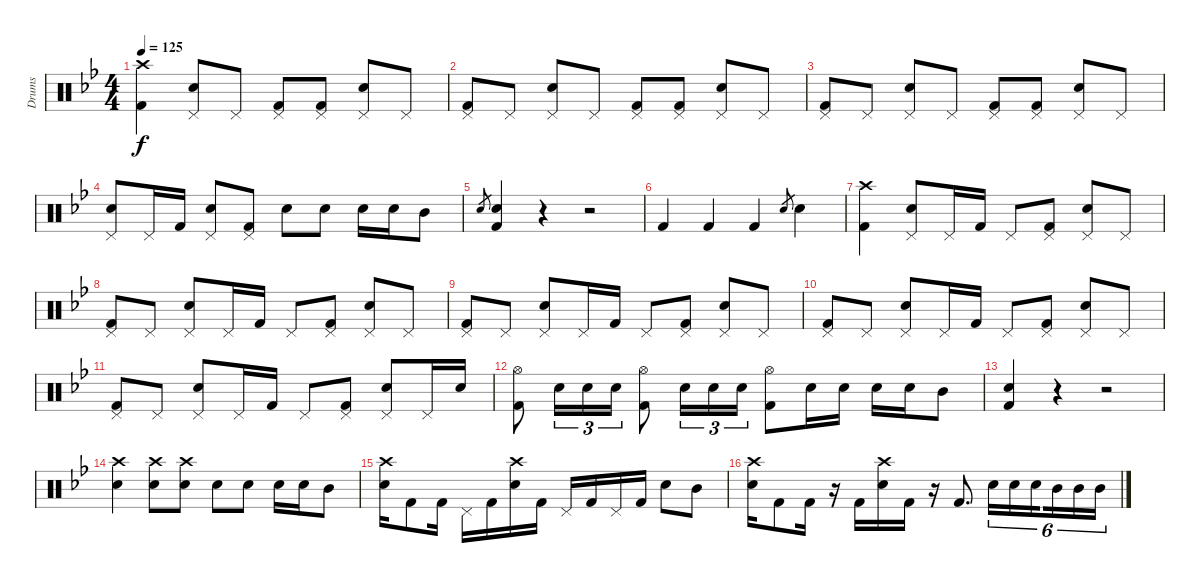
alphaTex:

\track ("Drums" "Drums") {instrument percussion}
\staff {score}
\articulation defaults
\ts (4 4)
\tempo 125
\clef neutral
\ks bb
("Crash high (hit)" "Kick (hit) 2").4{dy f} ("Pedal Hi-Hat (hit)" "Electric Snare (hit)").8 "Pedal Hi-Hat (hit)".8 ("Pedal Hi-Hat (hit)" "Kick (hit) 2").8 ("Pedal Hi-Hat (hit)" "Kick (hit) 2").8 ("Pedal Hi-Hat (hit)" "Electric Snare (hit)").8 "Pedal Hi-Hat (hit)".8 |
("Pedal Hi-Hat (hit)" "Kick (hit) 2").8 "Pedal Hi-Hat (hit)".8 ("Pedal Hi-Hat (hit)" "Electric Snare (hit)").8 "Pedal Hi-Hat (hit)".8 ("Pedal Hi-Hat (hit)" "Kick (hit) 2").8 ("Pedal Hi-Hat (hit)" "Kick (hit) 2").8 ("Pedal Hi-Hat (hit)" "Electric Snare (hit)").8 "Pedal Hi-Hat (hit)".8 |
("Pedal Hi-Hat (hit)" "Kick (hit) 2").8 "Pedal Hi-Hat (hit)".8 ("Pedal Hi-Hat (hit)" "Electric Snare (hit)").8 "Pedal Hi-Hat (hit)".8 ("Pedal Hi-Hat (hit)" "Kick (hit) 2").8 ("Pedal Hi-Hat (hit)" "Kick (hit) 2").8 ("Pedal Hi-Hat (hit)" "Electric Snare (hit)").8 "Pedal Hi-Hat (hit)".8 |
("Pedal Hi-Hat (hit)" "Electric Snare (hit)").8 "Pedal Hi-Hat (hit)".16 "Kick (hit) 2".16 ("Pedal Hi-Hat (hit)" "Electric Snare (hit)").8 ("Pedal Hi-Hat (hit)" "Kick (hit) 2").8 "Electric Snare (hit)".8 "Electric Snare (hit)".8 "Electric Snare (hit)".16 "Electric Snare (hit)".16 "Mid Tom (hit)".8 |
"Electric Snare (hit)".8{gr} ("Electric Snare (hit)" "Kick (hit) 2").4 r.4 r.2 |
"Kick (hit) 2".4 "Kick (hit) 2".4 "Kick (hit) 2".4 "Electric Snare (hit)".8{gr} "Electric Snare (hit)".4 |
("Crash high (hit)" "Kick (hit) 2").4 ("Pedal Hi-Hat (hit)" "Electric Snare (hit)").8 "Pedal Hi-Hat (hit)".16 "Kick (hit) 2".16 "Pedal Hi-Hat (hit)".8 ("Pedal Hi-Hat (hit)" "Kick (hit) 2").8 ("Pedal Hi-Hat (hit)" "Electric Snare (hit)").8 "Pedal Hi-Hat (hit)".8 |
("Pedal Hi-Hat (hit)" "Kick (hit) 2").8 "Pedal Hi-Hat (hit)".8 ("Pedal Hi-Hat (hit)" "Electric Snare (hit)").8 "Pedal Hi-Hat (hit)".16 "Kick (hit) 2".16 "Pedal Hi-Hat (hit)".8 ("Pedal Hi-Hat (hit)" "Kick (hit) 2").8 ("Pedal Hi-Hat (hit)" "Electric Snare (hit)").8 "Pedal Hi-Hat (hit)".8 |
("Pedal Hi-Hat (hit)" "Kick (hit) 2").8 "Pedal Hi-Hat (hit)".8 ("Pedal Hi-Hat (hit)" "Electric Snare (hit)").8 "Pedal Hi-Hat (hit)".16 "Kick (hit) 2".16 "Pedal Hi-Hat (hit)".8 ("Pedal Hi-Hat (hit)" "Kick (hit) 2").8 ("Pedal Hi-Hat (hit)" "Electric Snare (hit)").8 "Pedal Hi-Hat (hit)".8 |
("Pedal Hi-Hat (hit)" "Kick (hit) 2").8 "Pedal Hi-Hat (hit)".8 ("Pedal Hi-Hat (hit)" "Electric Snare (hit)").8 "Pedal Hi-Hat (hit)".16 "Kick (hit) 2".16 "Pedal Hi-Hat (hit)".8 ("Pedal Hi-Hat (hit)" "Kick (hit) 2").8 ("Pedal Hi-Hat (hit)" "Electric Snare (hit)").8 "Pedal Hi-Hat (hit)".8 |
("Pedal Hi-Hat (hit)" "Kick (hit) 2").8 "Pedal Hi-Hat (hit)".8 ("Pedal Hi-Hat (hit)" "Electric Snare (hit)").8 "Pedal Hi-Hat (hit)".16 "Kick (hit) 2".16 "Pedal Hi-Hat (hit)".8 ("Pedal Hi-Hat (hit)" "Kick (hit) 2").8 ("Pedal Hi-Hat (hit)" "Electric Snare (hit)").8 "Pedal Hi-Hat (hit)".16 "Electric Snare (hit)".16 |
("Hi-Hat (open)" "Kick (hit) 2").8 "Electric Snare (hit)".16{tu (3 2)} "Electric Snare (hit)".16{tu (3 2)} "Electric Snare (hit)".16{tu (3 2)} ("Hi-Hat (open)" "Kick (hit) 2").8 "Electric Snare (hit)".16{tu (3 2)} "Electric Snare (hit)".16{tu (3 2)} "Electric Snare (hit)".16{tu (3 2)} ("Hi-Hat (open)" "Kick (hit) 2").8 "Electric Snare (hit)".16 "Electric Snare (hit)".16 "Electric Snare (hit)".16 "Electric Snare (hit)".16 "Mid Tom (hit)".8 |
("Electric Snare (hit)" "Kick (hit) 2").4 r.4 r.2 |
("Crash high (hit)" "Electric Snare (hit)").4 ("Crash high (hit)" "Electric Snare (hit)").8 ("Crash high (hit)" "Electric Snare (hit)").8 "Electric Snare (hit)".8 "Electric Snare (hit)".8 "Electric Snare (hit)".16 "Electric Snare (hit)".16 "Mid Tom (hit)".8 |
("Crash high (hit)" "Electric Snare (hit)").16 "Kick (hit) 2".8 "Kick (hit) 2".16 "Pedal Hi-Hat (hit)".16 "Kick (hit) 2".16 ("Crash high (hit)" "Electric Snare (hit)").16 "Kick (hit) 2".16 "Pedal Hi-Hat (hit)".16 "Kick (hit) 2".16 "Pedal Hi-Hat (hit)".16 "Kick (hit) 2".16 "Electric Snare (hit)".8 "Mid Tom (hit)".8 |
("Crash high (hit)" "Electric Snare (hit)").16 "Kick (hit) 2".8 "Kick (hit) 2".16 r.16 "Kick (hit) 2".16 ("Crash high (hit)" "Electric Snare (hit)").16 "Kick (hit) 2".16 r.16 "Kick (hit) 2".8{d} "Electric Snare (hit)".16{tu (6 4)} "Electric Snare (hit)".16{tu (6 4)} "Electric Snare (hit)".16{tu (6 4) beam splitsecondary} "Mid Tom (hit)".16{tu (6 4)} "Mid Tom (hit)".16{tu (6 4)} "Mid Tom (hit)".16{tu (6 4)}
